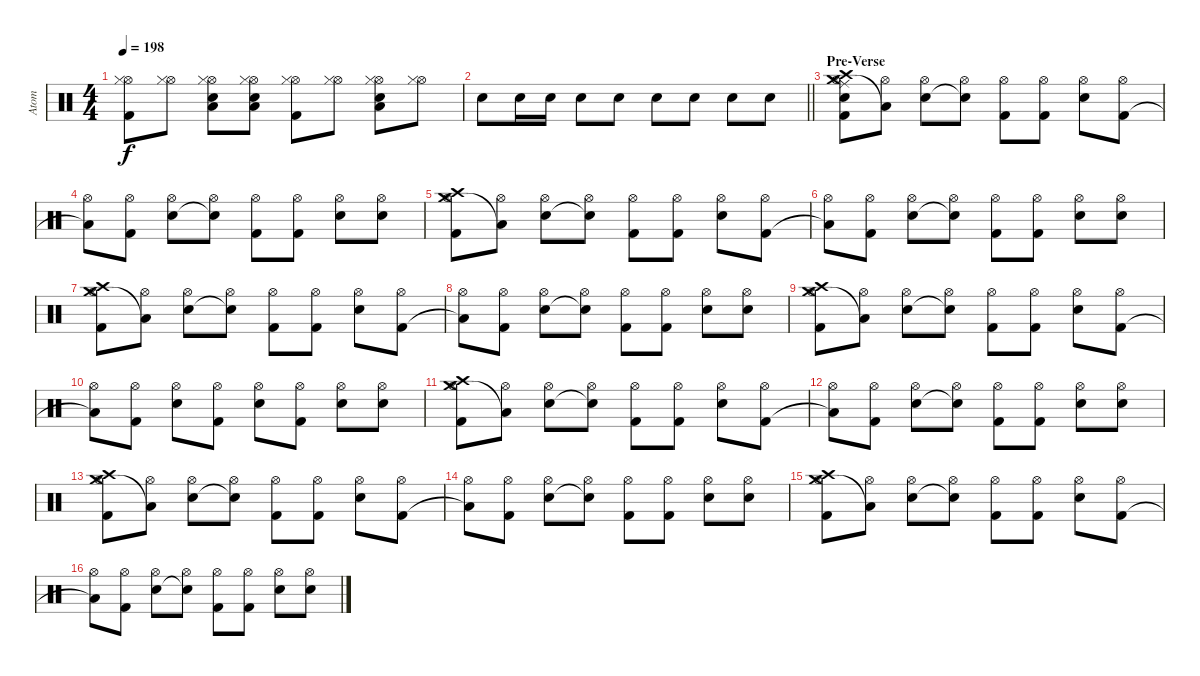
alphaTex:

\track ("Atom" "Atom") {instrument percussion}
\staff
\articulation defaults
\ts (4 4)
\tempo 198
\clef neutral
\ks c
("Hi-Hat (open)" "Kick (hit) 2" "Hi-Hat (closed)").8{dy f} ("Hi-Hat (open)" "Hi-Hat (closed)").8 ("Hi-Hat (open)" "Snare (hit) 2" "Low Floor Tom (hit)" "Hi-Hat (closed)").8 ("Hi-Hat (open)" "Snare (hit) 2" "Low Floor Tom (hit)" "Hi-Hat (closed)").8 ("Hi-Hat (open)" "Kick (hit) 2" "Hi-Hat (closed)").8 ("Hi-Hat (open)" "Hi-Hat (closed)").8 ("Hi-Hat (open)" "Snare (hit) 2" "Low Floor Tom (hit)" "Hi-Hat (closed)").8 ("Hi-Hat (open)" "Hi-Hat (closed)").8 |
\barLineRight lightlight "Snare (hit) 2".8 "Snare (hit) 2".16 "Snare (hit) 2".16 "Snare (hit) 2".8 "Snare (hit) 2".8 "Snare (hit) 2".8 "Snare (hit) 2".8 "Snare (hit) 2".8 "Snare (hit) 2".8
|
\section ("" "Pre-Verse")
("Crash medium (hit)" "Kick (hit) 2" "Hi-Hat (open)" "Crash high (hit)" "Ride (middle)" "Snare (hit) 2").8 ("Low Floor Tom (hit)"{t} "Hi-Hat (open)").8 ("Snare (hit) 2" "Hi-Hat (open)").8 ("Snare (hit) 2"{t} "Hi-Hat (open)").8 ("Kick (hit) 2" "Hi-Hat (open)").8 ("Kick (hit) 2" "Hi-Hat (open)").8 ("Snare (hit) 2" "Hi-Hat (open)").8 ("Kick (hit) 2" "Hi-Hat (open)").8 |
("Low Floor Tom (hit)"{t} "Hi-Hat (open)").8 ("Kick (hit) 2" "Hi-Hat (open)").8 ("Snare (hit) 2" "Hi-Hat (open)").8 ("Snare (hit) 2"{t} "Hi-Hat (open)").8 ("Kick (hit) 2" "Hi-Hat (open)").8 ("Kick (hit) 2" "Hi-Hat (open)").8 ("Snare (hit) 2" "Hi-Hat (open)").8 ("Snare (hit) 2" "Hi-Hat (open)").8 |
("Crash medium (hit)" "Kick (hit) 2" "Hi-Hat (open)" "Crash high (hit)").8 ("Low Floor Tom (hit)"{t} "Hi-Hat (open)").8 ("Snare (hit) 2" "Hi-Hat (open)").8 ("Snare (hit) 2"{t} "Hi-Hat (open)").8 ("Kick (hit) 2" "Hi-Hat (open)").8 ("Kick (hit) 2" "Hi-Hat (open)").8 ("Snare (hit) 2" "Hi-Hat (open)").8 ("Kick (hit) 2" "Hi-Hat (open)").8 |
("Low Floor Tom (hit)"{t} "Hi-Hat (open)").8 ("Kick (hit) 2" "Hi-Hat (open)").8 ("Snare (hit) 2" "Hi-Hat (open)").8 ("Snare (hit) 2"{t} "Hi-Hat (open)").8 ("Kick (hit) 2" "Hi-Hat (open)").8 ("Kick (hit) 2" "Hi-Hat (open)").8 ("Snare (hit) 2" "Hi-Hat (open)").8 ("Snare (hit) 2" "Hi-Hat (open)").8 |
("Crash medium (hit)" "Kick (hit) 2" "Hi-Hat (open)" "Crash high (hit)").8 ("Low Floor Tom (hit)"{t} "Hi-Hat (open)").8 ("Snare (hit) 2" "Hi-Hat (open)").8 ("Snare (hit) 2"{t} "Hi-Hat (open)").8 ("Kick (hit) 2" "Hi-Hat (open)").8 ("Kick (hit) 2" "Hi-Hat (open)").8 ("Snare (hit) 2" "Hi-Hat (open)").8 ("Kick (hit) 2" "Hi-Hat (open)").8 |
("Low Floor Tom (hit)"{t} "Hi-Hat (open)").8 ("Kick (hit) 2" "Hi-Hat (open)").8 ("Snare (hit) 2" "Hi-Hat (open)").8 ("Snare (hit) 2"{t} "Hi-Hat (open)").8 ("Kick (hit) 2" "Hi-Hat (open)").8 ("Kick (hit) 2" "Hi-Hat (open)").8 ("Snare (hit) 2" "Hi-Hat (open)").8 ("Snare (hit) 2" "Hi-Hat (open)").8 |
("Crash medium (hit)" "Kick (hit) 2" "Hi-Hat (open)" "Crash high (hit)").8 ("Low Floor Tom (hit)"{t} "Hi-Hat (open)").8 ("Snare (hit) 2" "Hi-Hat (open)").8 ("Snare (hit) 2"{t} "Hi-Hat (open)").8 ("Kick (hit) 2" "Hi-Hat (open)").8 ("Kick (hit) 2" "Hi-Hat (open)").8 ("Snare (hit) 2" "Hi-Hat (open)").8 ("Kick (hit) 2" "Hi-Hat (open)").8 |
("Low Floor Tom (hit)"{t} "Hi-Hat (open)").8 ("Kick (hit) 2" "Hi-Hat (open)").8 ("Snare (hit) 2" "Hi-Hat (open)").8 ("Kick (hit) 2" "Hi-Hat (open)").8 ("Snare (hit) 2" "Hi-Hat (open)").8 ("Kick (hit) 2" "Hi-Hat (open)").8 ("Snare (hit) 2" "Hi-Hat (open)").8 ("Snare (hit) 2" "Hi-Hat (open)").8 |
("Crash medium (hit)" "Kick (hit) 2" "Hi-Hat (open)" "Crash high (hit)").8 ("Low Floor Tom (hit)"{t} "Hi-Hat (open)").8 ("Snare (hit) 2" "Hi-Hat (open)").8 ("Snare (hit) 2"{t} "Hi-Hat (open)").8 ("Kick (hit) 2" "Hi-Hat (open)").8 ("Kick (hit) 2" "Hi-Hat (open)").8 ("Snare (hit) 2" "Hi-Hat (open)").8 ("Kick (hit) 2" "Hi-Hat (open)").8 |
("Low Floor Tom (hit)"{t} "Hi-Hat (open)").8 ("Kick (hit) 2" "Hi-Hat (open)").8 ("Snare (hit) 2" "Hi-Hat (open)").8 ("Snare (hit) 2"{t} "Hi-Hat (open)").8 ("Kick (hit) 2" "Hi-Hat (open)").8 ("Kick (hit) 2" "Hi-Hat (open)").8 ("Snare (hit) 2" "Hi-Hat (open)").8 ("Snare (hit) 2" "Hi-Hat (open)").8 |
("Crash medium (hit)" "Kick (hit) 2" "Hi-Hat (open)" "Crash high (hit)").8 ("Low Floor Tom (hit)"{t} "Hi-Hat (open)").8 ("Snare (hit) 2" "Hi-Hat (open)").8 ("Snare (hit) 2"{t} "Hi-Hat (open)").8 ("Kick (hit) 2" "Hi-Hat (open)").8 ("Kick (hit) 2" "Hi-Hat (open)").8 ("Snare (hit) 2" "Hi-Hat (open)").8 ("Kick (hit) 2" "Hi-Hat (open)").8 |
("Low Floor Tom (hit)"{t} "Hi-Hat (open)").8 ("Kick (hit) 2" "Hi-Hat (open)").8 ("Snare (hit) 2" "Hi-Hat (open)").8 ("Snare (hit) 2"{t} "Hi-Hat (open)").8 ("Kick (hit) 2" "Hi-Hat (open)").8 ("Kick (hit) 2" "Hi-Hat (open)").8 ("Snare (hit) 2" "Hi-Hat (open)").8 ("Snare (hit) 2" "Hi-Hat (open)").8 |
("Crash medium (hit)" "Kick (hit) 2" "Hi-Hat (open)" "Crash high (hit)").8 ("Low Floor Tom (hit)"{t} "Hi-Hat (open)").8 ("Snare (hit) 2" "Hi-Hat (open)").8 ("Snare (hit) 2"{t} "Hi-Hat (open)").8 ("Kick (hit) 2" "Hi-Hat (open)").8 ("Kick (hit) 2" "Hi-Hat (open)").8 ("Snare (hit) 2" "Hi-Hat (open)").8 ("Kick (hit) 2" "Hi-Hat (open)").8 |
("Low Floor Tom (hit)"{t} "Hi-Hat (open)").8 ("Kick (hit) 2" "Hi-Hat (open)").8 ("Snare (hit) 2" "Hi-Hat (open)").8 ("Snare (hit) 2"{t} "Hi-Hat (open)").8 ("Kick (hit) 2" "Hi-Hat (open)").8 ("Kick (hit) 2" "Hi-Hat (open)").8 ("Snare (hit) 2" "Hi-Hat (open)").8 ("Snare (hit) 2" "Hi-Hat (open)").8
